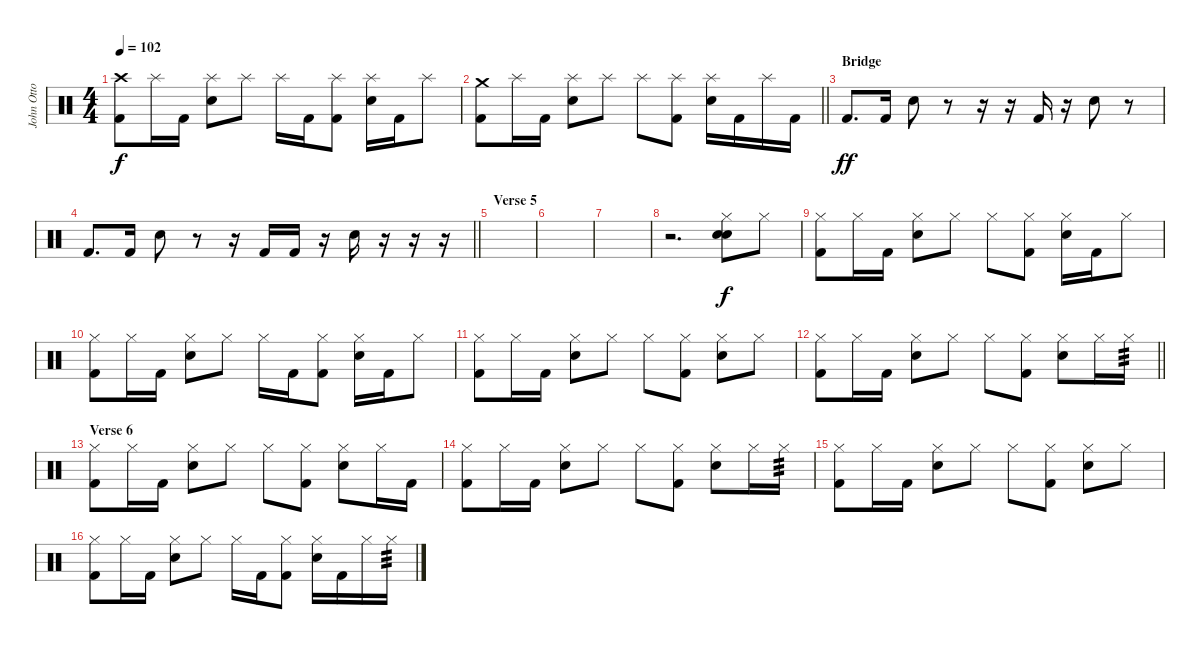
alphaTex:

\track ("John Otto (Drums)" "John Otto ") {instrument percussion}
\staff {score}
\articulation defaults
\ts (4 4)
\tempo 102
\clef neutral
\ks c
("Crash high (hit)" "Kick (hit) 2").8{dy f} "Splash (hit)".16 "Kick (hit) 2".16 ("Splash (hit)" "Snare (hit) 2").8 "Splash (hit)".8 "Splash (hit)".16 "Kick (hit) 2".16 ("Splash (hit)" "Kick (hit) 2").8 ("Splash (hit)" "Snare (hit) 2").16 "Kick (hit) 2".16 "Splash (hit)".8 |
\barLineRight lightlight
("Crash medium (hit)" "Kick (hit) 2").8 "Splash (hit)".16 "Kick (hit) 2".16 ("Splash (hit)" "Snare (hit) 2").8 "Splash (hit)".8 "Splash (hit)".8 ("Splash (hit)" "Kick (hit) 2").8 ("Splash (hit)" "Snare (hit) 2").16 "Kick (hit) 2".16 "Splash (hit)".16 "Kick (hit) 2".16 |
\section ("" "Bridge")
"Kick (hit) 2".8{d dy ff} "Kick (hit) 2".16 "Snare (hit) 2".8 r.8 r.16 r.16 "Kick (hit) 2".16 r.16 "Snare (hit) 2".8 r.8 |
\barLineRight lightlight "Kick (hit) 2".8{d} "Kick (hit) 2".16 "Snare (hit) 2".8
r.8 r.16 "Kick (hit) 2".16 "Kick (hit) 2".16 r.16 "Snare (hit) 2".16 r.16 r.16 r.16 |
\section ("" "Verse 5")
|
|
|
r.2{d} ("Hi-Hat (closed)" "Snare (hit) 2" "Electric Snare (hit)").8{dy f} "Hi-Hat (closed)".8 |
("Hi-Hat (closed)" "Kick (hit) 2").8 "Hi-Hat (closed)".16 "Kick (hit) 2".16 ("Hi-Hat (closed)" "Snare (hit) 2").8 "Hi-Hat (closed)".8 "Hi-Hat (closed)".8 ("Hi-Hat (closed)" "Kick (hit) 2").8 ("Hi-Hat (closed)" "Snare (hit) 2").16 "Kick (hit) 2".16 "Hi-Hat (closed)".8 |
("Hi-Hat (closed)" "Kick (hit) 2").8 "Hi-Hat (closed)".16 "Kick (hit) 2".16 ("Hi-Hat (closed)" "Snare (hit) 2").8 "Hi-Hat (closed)".8 "Hi-Hat (closed)".16 "Kick (hit) 2".16 ("Hi-Hat (closed)" "Kick (hit) 2").8 ("Hi-Hat (closed)" "Snare (hit) 2").16 "Kick (hit) 2".16 "Hi-Hat (closed)".8 |
("Hi-Hat (closed)" "Kick (hit) 2").8 "Hi-Hat (closed)".16 "Kick (hit) 2".16 ("Hi-Hat (closed)" "Snare (hit) 2").8 "Hi-Hat (closed)".8 "Hi-Hat (closed)".8 ("Hi-Hat (closed)" "Kick (hit) 2").8 ("Hi-Hat (closed)" "Snare (hit) 2").8 "Hi-Hat (closed)".8 |
\barLineRight lightlight
("Hi-Hat (closed)" "Kick (hit) 2").8 "Hi-Hat (closed)".16 "Kick (hit) 2".16 ("Hi-Hat (closed)" "Snare (hit) 2").8 "Hi-Hat (closed)".8 "Hi-Hat (closed)".8 ("Hi-Hat (closed)" "Kick (hit) 2").8 ("Hi-Hat (closed)" "Snare (hit) 2").8 "Hi-Hat (closed)".16 "Hi-Hat (closed)".16{tp 3} |
\section ("" "Verse 6")
("Hi-Hat (closed)" "Kick (hit) 2").8 "Hi-Hat (closed)".16 "Kick (hit) 2".16 ("Hi-Hat (closed)" "Snare (hit) 2").8 "Hi-Hat (closed)".8 "Hi-Hat (closed)".8 ("Hi-Hat (closed)" "Kick (hit) 2").8 ("Hi-Hat (closed)" "Snare (hit) 2").8 "Hi-Hat (closed)".16 "Kick (hit) 2".16 |
("Hi-Hat (closed)" "Kick (hit) 2").8 "Hi-Hat (closed)".16 "Kick (hit) 2".16 ("Hi-Hat (closed)" "Snare (hit) 2").8 "Hi-Hat (closed)".8 "Hi-Hat (closed)".8 ("Hi-Hat (closed)" "Kick (hit) 2").8 ("Hi-Hat (closed)" "Snare (hit) 2").8 "Hi-Hat (closed)".16 "Hi-Hat (closed)".16{tp 3} |
("Hi-Hat (closed)" "Kick (hit) 2").8 "Hi-Hat (closed)".16 "Kick (hit) 2".16 ("Hi-Hat (closed)" "Snare (hit) 2").8 "Hi-Hat (closed)".8 "Hi-Hat (closed)".8 ("Hi-Hat (closed)" "Kick (hit) 2").8 ("Hi-Hat (closed)" "Snare (hit) 2").8 "Hi-Hat (closed)".8 |
("Hi-Hat (closed)" "Kick (hit) 2").8 "Hi-Hat (closed)".16 "Kick (hit) 2".16 ("Hi-Hat (closed)" "Snare (hit) 2").8 "Hi-Hat (closed)".8 "Hi-Hat (closed)".16 "Kick (hit) 2".16 ("Hi-Hat (closed)" "Kick (hit) 2").8 ("Hi-Hat (closed)" "Snare (hit) 2").16 "Kick (hit) 2".16 "Hi-Hat (closed)".16 "Hi-Hat (closed)".16{tp 3}
